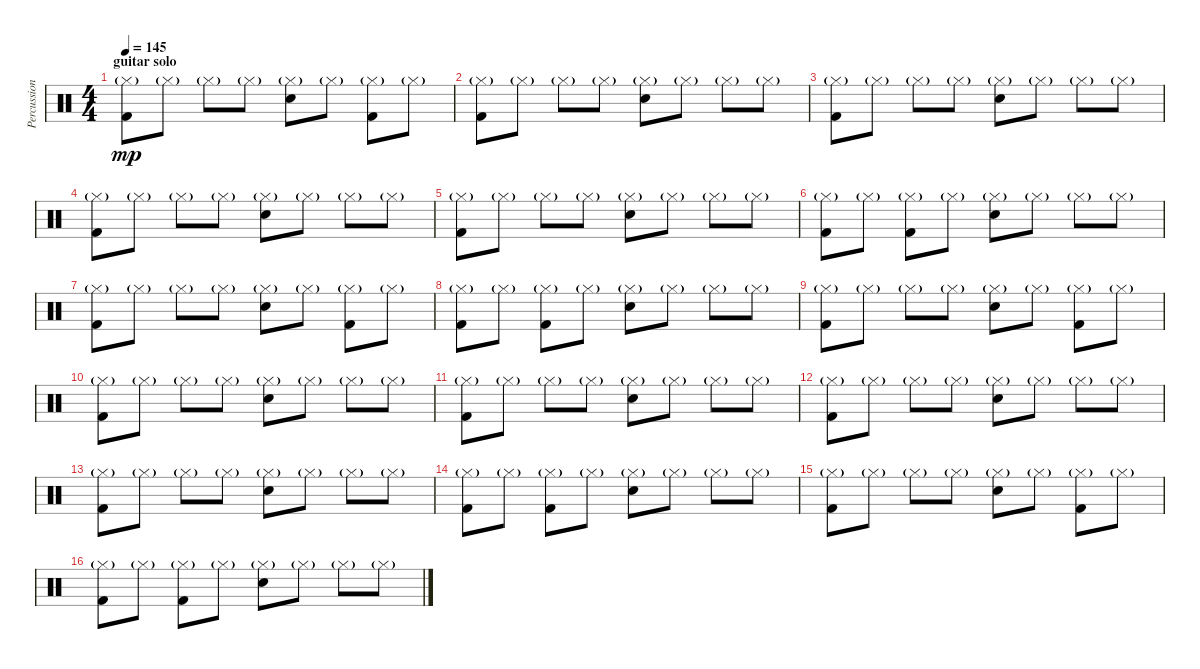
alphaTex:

\track ("Percussion (Bengerg)" "Percussion") {instrument percussion}
\staff {score}
\articulation defaults
\ts (4 4)
\section ("" "guitar solo")
\tempo 145
\clef neutral
\ks c
("Hi-Hat (closed)"{g} "Kick (hit) 2").8{dy mp} "Hi-Hat (closed)"{g}.8 "Hi-Hat (closed)"{g}.8 "Hi-Hat (closed)"{g}.8 ("Hi-Hat (closed)"{g} "Hand Clap (hit)").8 "Hi-Hat (closed)"{g}.8 ("Hi-Hat (closed)"{g} "Kick (hit) 2").8 "Hi-Hat (closed)"{g}.8 |
("Hi-Hat (closed)"{g} "Kick (hit) 2").8 "Hi-Hat (closed)"{g}.8 "Hi-Hat (closed)"{g}.8 "Hi-Hat (closed)"{g}.8 ("Hi-Hat (closed)"{g} "Hand Clap (hit)").8 "Hi-Hat (closed)"{g}.8 "Hi-Hat (closed)"{g}.8 "Hi-Hat (closed)"{g}.8 |
("Hi-Hat (closed)"{g} "Kick (hit) 2").8 "Hi-Hat (closed)"{g}.8 "Hi-Hat (closed)"{g}.8 "Hi-Hat (closed)"{g}.8 ("Hi-Hat (closed)"{g} "Hand Clap (hit)").8 "Hi-Hat (closed)"{g}.8 "Hi-Hat (closed)"{g}.8 "Hi-Hat (closed)"{g}.8 |
("Hi-Hat (closed)"{g} "Kick (hit) 2").8 "Hi-Hat (closed)"{g}.8 "Hi-Hat (closed)"{g}.8 "Hi-Hat (closed)"{g}.8 ("Hi-Hat (closed)"{g} "Hand Clap (hit)").8 "Hi-Hat (closed)"{g}.8 "Hi-Hat (closed)"{g}.8 "Hi-Hat (closed)"{g}.8 |
("Hi-Hat (closed)"{g} "Kick (hit) 2").8 "Hi-Hat (closed)"{g}.8 "Hi-Hat (closed)"{g}.8 "Hi-Hat (closed)"{g}.8 ("Hi-Hat (closed)"{g} "Hand Clap (hit)").8 "Hi-Hat (closed)"{g}.8 "Hi-Hat (closed)"{g}.8 "Hi-Hat (closed)"{g}.8 |
("Hi-Hat (closed)"{g} "Kick (hit) 2").8 "Hi-Hat (closed)"{g}.8 ("Hi-Hat (closed)"{g} "Kick (hit) 2").8 "Hi-Hat (closed)"{g}.8 ("Hi-Hat (closed)"{g} "Hand Clap (hit)").8 "Hi-Hat (closed)"{g}.8 "Hi-Hat (closed)"{g}.8 "Hi-Hat (closed)"{g}.8 |
("Hi-Hat (closed)"{g} "Kick (hit) 2").8 "Hi-Hat (closed)"{g}.8 "Hi-Hat (closed)"{g}.8 "Hi-Hat (closed)"{g}.8 ("Hi-Hat (closed)"{g} "Hand Clap (hit)").8 "Hi-Hat (closed)"{g}.8 ("Hi-Hat (closed)"{g} "Kick (hit) 2").8 "Hi-Hat (closed)"{g}.8 |
("Hi-Hat (closed)"{g} "Kick (hit) 2").8 "Hi-Hat (closed)"{g}.8 ("Hi-Hat (closed)"{g} "Kick (hit) 2").8 "Hi-Hat (closed)"{g}.8 ("Hi-Hat (closed)"{g} "Hand Clap (hit)").8 "Hi-Hat (closed)"{g}.8 "Hi-Hat (closed)"{g}.8 "Hi-Hat (closed)"{g}.8 |
("Hi-Hat (closed)"{g} "Kick (hit) 2").8 "Hi-Hat (closed)"{g}.8 "Hi-Hat (closed)"{g}.8 "Hi-Hat (closed)"{g}.8 ("Hi-Hat (closed)"{g} "Hand Clap (hit)").8 "Hi-Hat (closed)"{g}.8 ("Hi-Hat (closed)"{g} "Kick (hit) 2").8 "Hi-Hat (closed)"{g}.8 |
("Hi-Hat (closed)"{g} "Kick (hit) 2").8 "Hi-Hat (closed)"{g}.8 "Hi-Hat (closed)"{g}.8 "Hi-Hat (closed)"{g}.8 ("Hi-Hat (closed)"{g} "Hand Clap (hit)").8 "Hi-Hat (closed)"{g}.8 "Hi-Hat (closed)"{g}.8 "Hi-Hat (closed)"{g}.8 |
("Hi-Hat (closed)"{g} "Kick (hit) 2").8 "Hi-Hat (closed)"{g}.8 "Hi-Hat (closed)"{g}.8 "Hi-Hat (closed)"{g}.8 ("Hi-Hat (closed)"{g} "Hand Clap (hit)").8 "Hi-Hat (closed)"{g}.8 "Hi-Hat (closed)"{g}.8 "Hi-Hat (closed)"{g}.8 |
("Hi-Hat (closed)"{g} "Kick (hit) 2").8 "Hi-Hat (closed)"{g}.8 "Hi-Hat (closed)"{g}.8 "Hi-Hat (closed)"{g}.8 ("Hi-Hat (closed)"{g} "Hand Clap (hit)").8 "Hi-Hat (closed)"{g}.8 "Hi-Hat (closed)"{g}.8 "Hi-Hat (closed)"{g}.8 |
("Hi-Hat (closed)"{g} "Kick (hit) 2").8 "Hi-Hat (closed)"{g}.8 "Hi-Hat (closed)"{g}.8 "Hi-Hat (closed)"{g}.8 ("Hi-Hat (closed)"{g} "Hand Clap (hit)").8 "Hi-Hat (closed)"{g}.8 "Hi-Hat (closed)"{g}.8 "Hi-Hat (closed)"{g}.8 |
("Hi-Hat (closed)"{g} "Kick (hit) 2").8 "Hi-Hat (closed)"{g}.8 ("Hi-Hat (closed)"{g} "Kick (hit) 2").8 "Hi-Hat (closed)"{g}.8 ("Hi-Hat (closed)"{g} "Hand Clap (hit)").8 "Hi-Hat (closed)"{g}.8 "Hi-Hat (closed)"{g}.8 "Hi-Hat (closed)"{g}.8 |
("Hi-Hat (closed)"{g} "Kick (hit) 2").8 "Hi-Hat (closed)"{g}.8 "Hi-Hat (closed)"{g}.8 "Hi-Hat (closed)"{g}.8 ("Hi-Hat (closed)"{g} "Hand Clap (hit)").8 "Hi-Hat (closed)"{g}.8 ("Hi-Hat (closed)"{g} "Kick (hit) 2").8 "Hi-Hat (closed)"{g}.8 |
("Hi-Hat (closed)"{g} "Kick (hit) 2").8 "Hi-Hat (closed)"{g}.8 ("Hi-Hat (closed)"{g} "Kick (hit) 2").8 "Hi-Hat (closed)"{g}.8 ("Hi-Hat (closed)"{g} "Hand Clap (hit)").8 "Hi-Hat (closed)"{g}.8 "Hi-Hat (closed)"{g}.8 "Hi-Hat (closed)"{g}.8
